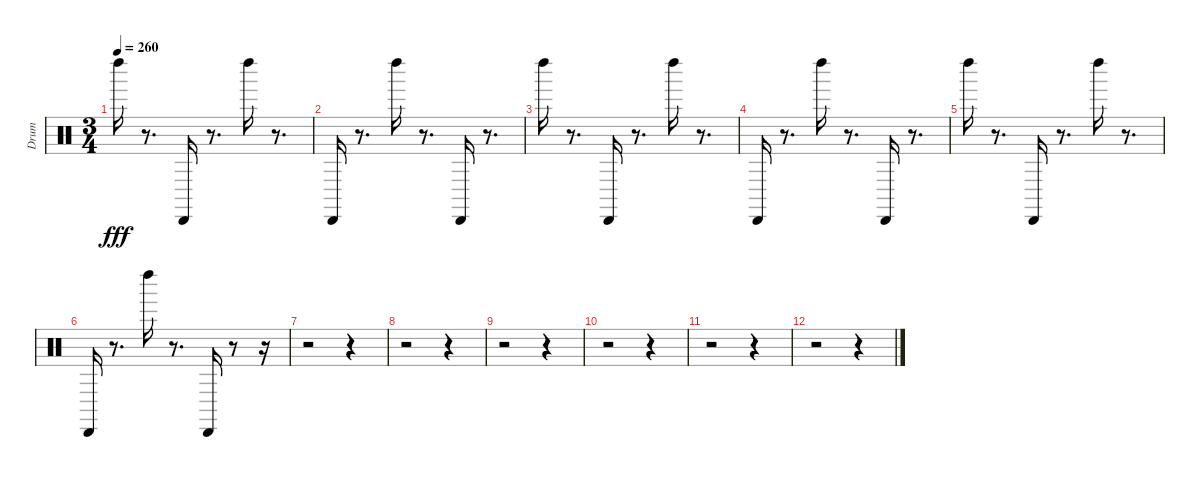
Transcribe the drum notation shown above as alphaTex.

\track ("Drum" "Drum") {instrument percussion}
\staff {score}
\articulation defaults
\ts (3 4)
\tempo 260
\clef neutral
\ks c "Left Maraca (hit)".16{dy fff}
r.8{d} "Cabasa (hit)".16 r.8{d} "Left Maraca (hit)".16 r.8{d} |
"Cabasa (hit)".16 r.8{d} "Left Maraca (hit)".16 r.8{d} "Cabasa (hit)".16 r.8{d} |
"Left Maraca (hit)".16 r.8{d} "Cabasa (hit)".16 r.8{d} "Left Maraca (hit)".16 r.8{d} |
"Cabasa (hit)".16 r.8{d} "Left Maraca (hit)".16 r.8{d} "Cabasa (hit)".16 r.8{d} |
"Left Maraca (hit)".16 r.8{d} "Cabasa (hit)".16 r.8{d} "Left Maraca (hit)".16 r.8{d} |
"Cabasa (hit)".16 r.8{d} "Left Maraca (hit)".16 r.8{d} "Cabasa (hit)".16 r.8 r.16 |
r.2 r.4 |
r.2 r.4 |
r.2 r.4 |
r.2 r.4 |
r.2 r.4 |
r.2 r.4
